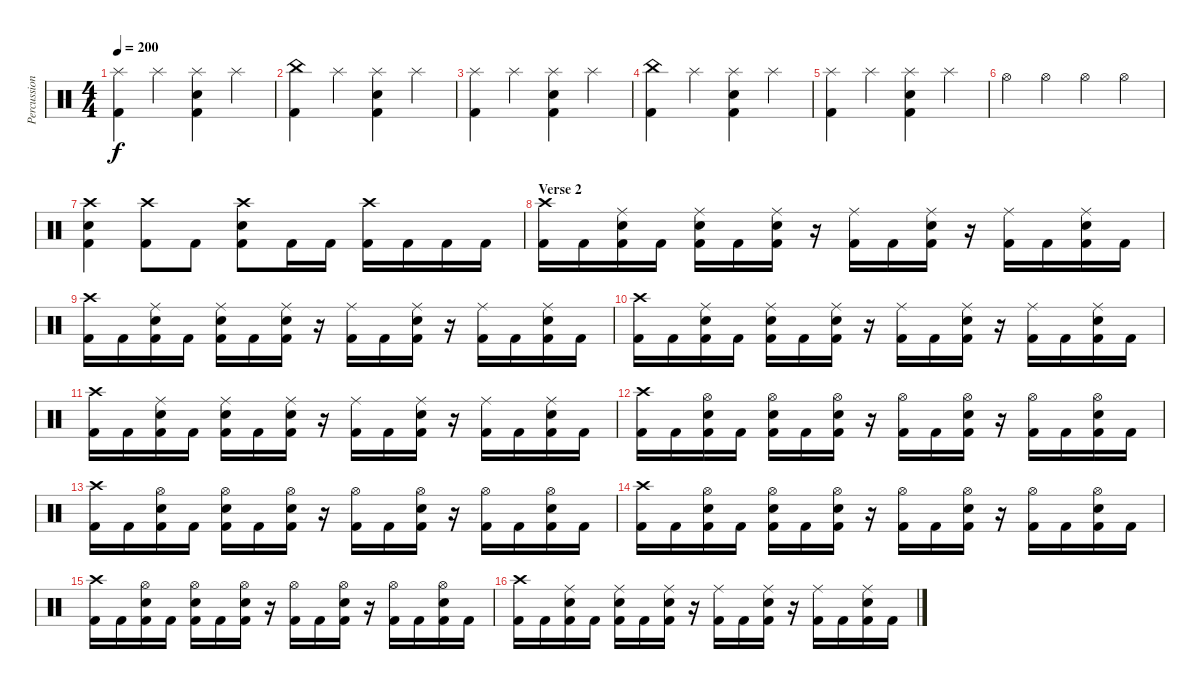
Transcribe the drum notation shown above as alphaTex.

\track ("Percussion" "Percussion") {instrument percussion}
\staff {score}
\articulation defaults
\ts (4 4)
\tempo 200
\clef neutral
\ks c
("Splash (hit)" "Kick (hit) 2").4{dy f} "Splash (hit)".4 ("Splash (hit)" "Snare (hit) 2" "Kick (hit) 2").4 "Splash (hit)".4 |
("China (hit)" "Kick (hit) 2").4 "Splash (hit)".4 ("Splash (hit)" "Snare (hit) 2" "Kick (hit) 2").4 "Splash (hit)".4 |
("Splash (hit)" "Kick (hit) 2").4 "Splash (hit)".4 ("Splash (hit)" "Snare (hit) 2" "Kick (hit) 2").4 "Splash (hit)".4 |
("China (hit)" "Kick (hit) 2").4 "Splash (hit)".4 ("Splash (hit)" "Snare (hit) 2" "Kick (hit) 2").4 "Splash (hit)".4 |
("Splash (hit)" "Kick (hit) 2").4 "Splash (hit)".4 ("Splash (hit)" "Snare (hit) 2" "Kick (hit) 2").4 "Splash (hit)".4 |
"Hi-Hat (open)".4 "Hi-Hat (open)".4 "Hi-Hat (open)".4 "Hi-Hat (open)".4 |
("Crash high (hit)" "Snare (hit) 2" "Kick (hit) 2").4 ("Crash high (hit)" "Kick (hit) 2").8 "Kick (hit) 2".8 ("Crash high (hit)" "Snare (hit) 2" "Kick (hit) 2").8 "Kick (hit) 2".16 "Kick (hit) 2".16 ("Crash high (hit)" "Kick (hit) 2").16 "Kick (hit) 2".16 "Kick (hit) 2".16 "Kick (hit) 2".16 |
\section ("" "Verse 2")
("Crash high (hit)" "Kick (hit) 2").16 "Kick (hit) 2".16 ("Ride (middle)" "Snare (hit) 2" "Kick (hit) 2").16 "Kick (hit) 2".16 ("Ride (middle)" "Snare (hit) 2" "Kick (hit) 2").16 "Kick (hit) 2".16 ("Ride (middle)" "Snare (hit) 2" "Kick (hit) 2").16 r.16 ("Ride (middle)" "Kick (hit) 2").16 "Kick (hit) 2".16 ("Ride (middle)" "Snare (hit) 2" "Kick (hit) 2").16 r.16 ("Ride (middle)" "Kick (hit) 2").16 "Kick (hit) 2".16 ("Ride (middle)" "Snare (hit) 2" "Kick (hit) 2").16 "Kick (hit) 2".16 |
("Crash high (hit)" "Kick (hit) 2").16 "Kick (hit) 2".16 ("Ride (middle)" "Snare (hit) 2" "Kick (hit) 2").16 "Kick (hit) 2".16 ("Ride (middle)" "Snare (hit) 2" "Kick (hit) 2").16 "Kick (hit) 2".16 ("Ride (middle)" "Snare (hit) 2" "Kick (hit) 2").16 r.16 ("Ride (middle)" "Kick (hit) 2").16 "Kick (hit) 2".16 ("Ride (middle)" "Snare (hit) 2" "Kick (hit) 2").16 r.16 ("Ride (middle)" "Kick (hit) 2").16 "Kick (hit) 2".16 ("Ride (middle)" "Snare (hit) 2" "Kick (hit) 2").16 "Kick (hit) 2".16 |
("Crash high (hit)" "Kick (hit) 2").16 "Kick (hit) 2".16 ("Ride (middle)" "Snare (hit) 2" "Kick (hit) 2").16 "Kick (hit) 2".16 ("Ride (middle)" "Snare (hit) 2" "Kick (hit) 2").16 "Kick (hit) 2".16 ("Ride (middle)" "Snare (hit) 2" "Kick (hit) 2").16 r.16 ("Ride (middle)" "Kick (hit) 2").16 "Kick (hit) 2".16 ("Ride (middle)" "Snare (hit) 2" "Kick (hit) 2").16 r.16 ("Ride (middle)" "Kick (hit) 2").16 "Kick (hit) 2".16 ("Ride (middle)" "Snare (hit) 2" "Kick (hit) 2").16 "Kick (hit) 2".16 |
("Crash high (hit)" "Kick (hit) 2").16 "Kick (hit) 2".16 ("Ride (middle)" "Snare (hit) 2" "Kick (hit) 2").16 "Kick (hit) 2".16 ("Ride (middle)" "Snare (hit) 2" "Kick (hit) 2").16 "Kick (hit) 2".16 ("Ride (middle)" "Snare (hit) 2" "Kick (hit) 2").16 r.16 ("Ride (middle)" "Kick (hit) 2").16 "Kick (hit) 2".16 ("Ride (middle)" "Snare (hit) 2" "Kick (hit) 2").16 r.16 ("Ride (middle)" "Kick (hit) 2").16 "Kick (hit) 2".16 ("Ride (middle)" "Snare (hit) 2" "Kick (hit) 2").16 "Kick (hit) 2".16 |
("Crash high (hit)" "Kick (hit) 2").16 "Kick (hit) 2".16 ("Hi-Hat (open)" "Snare (hit) 2" "Kick (hit) 2").16 "Kick (hit) 2".16 ("Hi-Hat (open)" "Snare (hit) 2" "Kick (hit) 2").16 "Kick (hit) 2".16 ("Hi-Hat (open)" "Snare (hit) 2" "Kick (hit) 2").16 r.16 ("Hi-Hat (open)" "Kick (hit) 2").16 "Kick (hit) 2".16 ("Hi-Hat (open)" "Snare (hit) 2" "Kick (hit) 2").16 r.16 ("Hi-Hat (open)" "Kick (hit) 2").16 "Kick (hit) 2".16 ("Hi-Hat (open)" "Snare (hit) 2" "Kick (hit) 2").16 "Kick (hit) 2".16 |
("Crash high (hit)" "Kick (hit) 2").16 "Kick (hit) 2".16 ("Hi-Hat (open)" "Snare (hit) 2" "Kick (hit) 2").16 "Kick (hit) 2".16 ("Hi-Hat (open)" "Snare (hit) 2" "Kick (hit) 2").16 "Kick (hit) 2".16 ("Hi-Hat (open)" "Snare (hit) 2" "Kick (hit) 2").16 r.16 ("Hi-Hat (open)" "Kick (hit) 2").16 "Kick (hit) 2".16 ("Hi-Hat (open)" "Snare (hit) 2" "Kick (hit) 2").16 r.16 ("Hi-Hat (open)" "Kick (hit) 2").16 "Kick (hit) 2".16 ("Hi-Hat (open)" "Snare (hit) 2" "Kick (hit) 2").16 "Kick (hit) 2".16 |
("Crash high (hit)" "Kick (hit) 2").16 "Kick (hit) 2".16 ("Hi-Hat (open)" "Snare (hit) 2" "Kick (hit) 2").16 "Kick (hit) 2".16 ("Hi-Hat (open)" "Snare (hit) 2" "Kick (hit) 2").16 "Kick (hit) 2".16 ("Hi-Hat (open)" "Snare (hit) 2" "Kick (hit) 2").16 r.16 ("Hi-Hat (open)" "Kick (hit) 2").16 "Kick (hit) 2".16 ("Hi-Hat (open)" "Snare (hit) 2" "Kick (hit) 2").16 r.16 ("Hi-Hat (open)" "Kick (hit) 2").16 "Kick (hit) 2".16 ("Hi-Hat (open)" "Snare (hit) 2" "Kick (hit) 2").16 "Kick (hit) 2".16 |
("Crash high (hit)" "Kick (hit) 2").16 "Kick (hit) 2".16 ("Hi-Hat (open)" "Snare (hit) 2" "Kick (hit) 2").16 "Kick (hit) 2".16 ("Hi-Hat (open)" "Snare (hit) 2" "Kick (hit) 2").16 "Kick (hit) 2".16 ("Hi-Hat (open)" "Snare (hit) 2" "Kick (hit) 2").16 r.16 ("Hi-Hat (open)" "Kick (hit) 2").16 "Kick (hit) 2".16 ("Hi-Hat (open)" "Snare (hit) 2" "Kick (hit) 2").16 r.16 ("Hi-Hat (open)" "Kick (hit) 2").16 "Kick (hit) 2".16 ("Hi-Hat (open)" "Snare (hit) 2" "Kick (hit) 2").16 "Kick (hit) 2".16 |
("Crash high (hit)" "Kick (hit) 2").16 "Kick (hit) 2".16 ("Ride (middle)" "Snare (hit) 2" "Kick (hit) 2").16 "Kick (hit) 2".16 ("Ride (middle)" "Snare (hit) 2" "Kick (hit) 2").16 "Kick (hit) 2".16 ("Ride (middle)" "Snare (hit) 2" "Kick (hit) 2").16 r.16 ("Ride (middle)" "Kick (hit) 2").16 "Kick (hit) 2".16 ("Ride (middle)" "Snare (hit) 2" "Kick (hit) 2").16 r.16 ("Ride (middle)" "Kick (hit) 2").16 "Kick (hit) 2".16 ("Ride (middle)" "Snare (hit) 2" "Kick (hit) 2").16 "Kick (hit) 2".16
